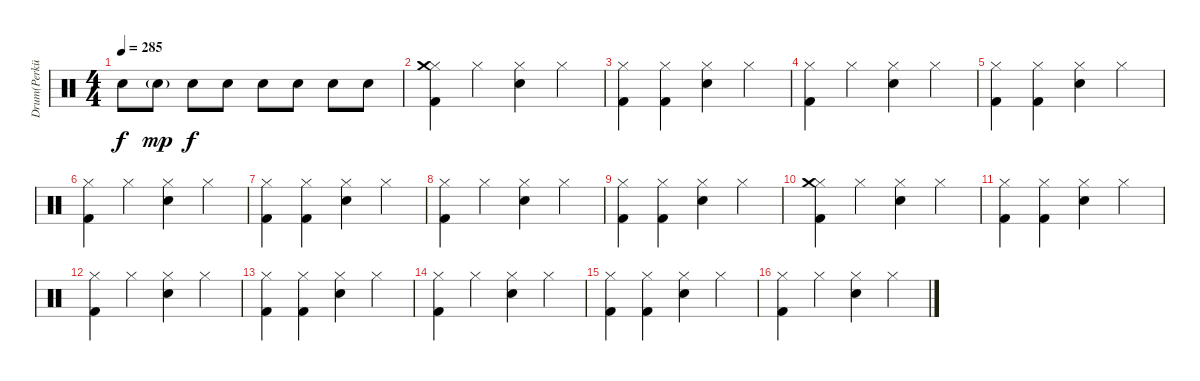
\track ("Drum(Perküsyon)" "Drum(Perkü") {instrument percussion}
\staff {score}
\articulation defaults
\ts (4 4)
\tempo 285
\clef neutral
\ks c "Electric Snare (hit)".8{dy f} "Electric Snare (hit)"{g}.8{dy mp} "Electric Snare (hit)".8{dy f} "Electric Snare (hit)".8 "Electric Snare (hit)".8 "Electric Snare (hit)".8 "Electric Snare (hit)".8 "Electric Snare (hit)".8
|
("Hi-Hat (closed)" "Kick (hit) 2" "Crash medium (hit)").4 "Hi-Hat (closed)".4 ("Hi-Hat (closed)" "Electric Snare (hit)").4 "Hi-Hat (closed)".4 |
("Hi-Hat (closed)" "Kick (hit) 2").4 ("Hi-Hat (closed)" "Kick (hit) 2").4 ("Hi-Hat (closed)" "Electric Snare (hit)").4 "Hi-Hat (closed)".4 |
("Hi-Hat (closed)" "Kick (hit) 2").4 "Hi-Hat (closed)".4 ("Hi-Hat (closed)" "Electric Snare (hit)").4 "Hi-Hat (closed)".4 |
("Hi-Hat (closed)" "Kick (hit) 2").4 ("Hi-Hat (closed)" "Kick (hit) 2").4 ("Hi-Hat (closed)" "Electric Snare (hit)").4 "Hi-Hat (closed)".4 |
("Hi-Hat (closed)" "Kick (hit) 2").4 "Hi-Hat (closed)".4 ("Hi-Hat (closed)" "Electric Snare (hit)").4 "Hi-Hat (closed)".4 |
("Hi-Hat (closed)" "Kick (hit) 2").4 ("Hi-Hat (closed)" "Kick (hit) 2").4 ("Hi-Hat (closed)" "Electric Snare (hit)").4 "Hi-Hat (closed)".4 |
("Hi-Hat (closed)" "Kick (hit) 2").4 "Hi-Hat (closed)".4 ("Hi-Hat (closed)" "Electric Snare (hit)").4 "Hi-Hat (closed)".4 |
("Hi-Hat (closed)" "Kick (hit) 2").4 ("Hi-Hat (closed)" "Kick (hit) 2").4 ("Hi-Hat (closed)" "Electric Snare (hit)").4 "Hi-Hat (closed)".4 |
("Hi-Hat (closed)" "Kick (hit) 2" "Crash medium (hit)").4 "Hi-Hat (closed)".4 ("Hi-Hat (closed)" "Electric Snare (hit)").4 "Hi-Hat (closed)".4 |
("Hi-Hat (closed)" "Kick (hit) 2").4 ("Hi-Hat (closed)" "Kick (hit) 2").4 ("Hi-Hat (closed)" "Electric Snare (hit)").4 "Hi-Hat (closed)".4 |
("Hi-Hat (closed)" "Kick (hit) 2").4 "Hi-Hat (closed)".4 ("Hi-Hat (closed)" "Electric Snare (hit)").4 "Hi-Hat (closed)".4 |
("Hi-Hat (closed)" "Kick (hit) 2").4 ("Hi-Hat (closed)" "Kick (hit) 2").4 ("Hi-Hat (closed)" "Electric Snare (hit)").4 "Hi-Hat (closed)".4 |
("Hi-Hat (closed)" "Kick (hit) 2").4 "Hi-Hat (closed)".4 ("Hi-Hat (closed)" "Electric Snare (hit)").4 "Hi-Hat (closed)".4 |
("Hi-Hat (closed)" "Kick (hit) 2").4 ("Hi-Hat (closed)" "Kick (hit) 2").4 ("Hi-Hat (closed)" "Electric Snare (hit)").4 "Hi-Hat (closed)".4 |
("Hi-Hat (closed)" "Kick (hit) 2").4 "Hi-Hat (closed)".4 ("Hi-Hat (closed)" "Electric Snare (hit)").4 "Hi-Hat (closed)".4
